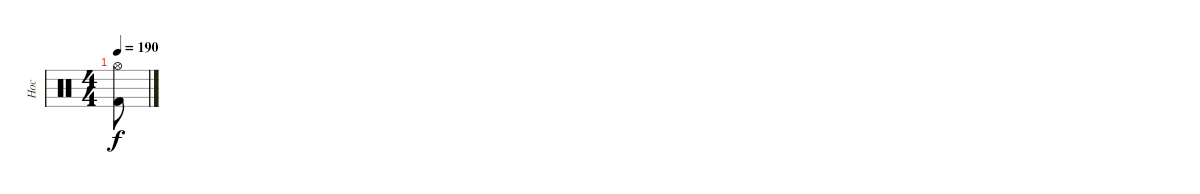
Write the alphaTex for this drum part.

\track ("Нос" "Нос") {instrument percussion}
\staff {score}
\articulation defaults
\ts (4 4)
\tempo 190
\clef neutral
\ks c
("Hi-Hat (open)" "Kick (hit) 2").8{dy f}
